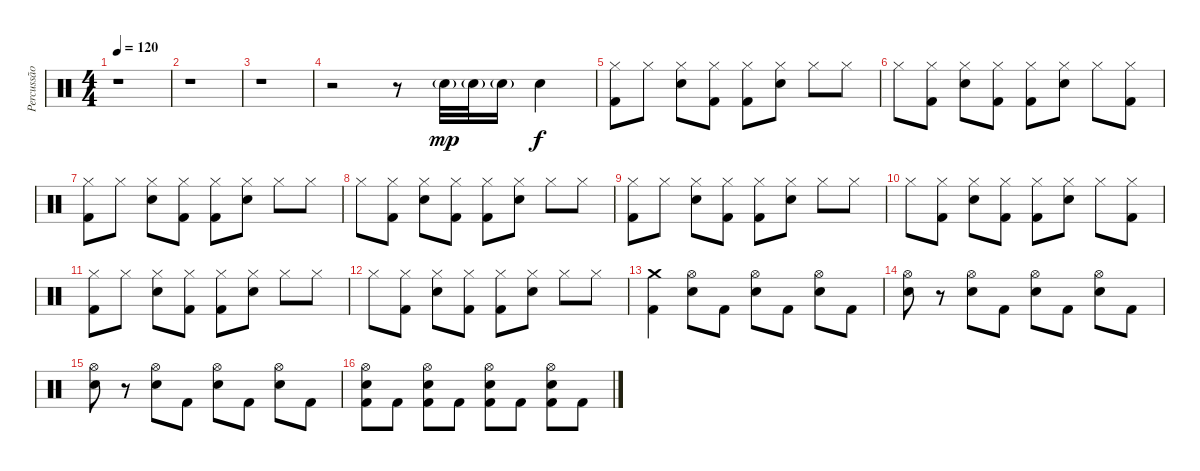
\track ("Percussão" "Percussão") {instrument percussion}
\staff {score}
\articulation defaults
\ts (4 4)
\tempo 120
\clef neutral
\ks c
r.1{dy mp} |
r.1 |
r.1 |
r.2 r.8 "Electric Snare (hit)"{g}.32 "Electric Snare (hit)"{g}.32 "Electric Snare (hit)"{g}.16 "Electric Snare (hit)".4{dy f} |
("Kick (hit) 2" "Hi-Hat (closed)").8 "Hi-Hat (closed)".8 ("Electric Snare (hit)" "Hi-Hat (closed)").8 ("Kick (hit) 2" "Hi-Hat (closed)").8 ("Kick (hit) 2" "Hi-Hat (closed)").8 ("Electric Snare (hit)" "Hi-Hat (closed)").8 "Hi-Hat (closed)".8 "Hi-Hat (closed)".8 |
"Hi-Hat (closed)".8 ("Kick (hit) 2" "Hi-Hat (closed)").8 ("Electric Snare (hit)" "Hi-Hat (closed)").8 ("Kick (hit) 2" "Hi-Hat (closed)").8 ("Kick (hit) 2" "Hi-Hat (closed)").8 ("Electric Snare (hit)" "Hi-Hat (closed)").8 "Hi-Hat (closed)".8 ("Kick (hit) 2" "Hi-Hat (closed)").8 |
("Kick (hit) 2" "Hi-Hat (closed)").8 "Hi-Hat (closed)".8 ("Electric Snare (hit)" "Hi-Hat (closed)").8 ("Kick (hit) 2" "Hi-Hat (closed)").8 ("Kick (hit) 2" "Hi-Hat (closed)").8 ("Electric Snare (hit)" "Hi-Hat (closed)").8 "Hi-Hat (closed)".8 "Hi-Hat (closed)".8 |
"Hi-Hat (closed)".8 ("Kick (hit) 2" "Hi-Hat (closed)").8 ("Electric Snare (hit)" "Hi-Hat (closed)").8 ("Kick (hit) 2" "Hi-Hat (closed)").8 ("Kick (hit) 2" "Hi-Hat (closed)").8 ("Electric Snare (hit)" "Hi-Hat (closed)").8 "Hi-Hat (closed)".8 "Hi-Hat (closed)".8 |
("Kick (hit) 2" "Hi-Hat (closed)").8 "Hi-Hat (closed)".8 ("Electric Snare (hit)" "Hi-Hat (closed)").8 ("Kick (hit) 2" "Hi-Hat (closed)").8 ("Kick (hit) 2" "Hi-Hat (closed)").8 ("Electric Snare (hit)" "Hi-Hat (closed)").8 "Hi-Hat (closed)".8 "Hi-Hat (closed)".8 |
"Hi-Hat (closed)".8 ("Kick (hit) 2" "Hi-Hat (closed)").8 ("Electric Snare (hit)" "Hi-Hat (closed)").8 ("Kick (hit) 2" "Hi-Hat (closed)").8 ("Kick (hit) 2" "Hi-Hat (closed)").8 ("Electric Snare (hit)" "Hi-Hat (closed)").8 "Hi-Hat (closed)".8 ("Kick (hit) 2" "Hi-Hat (closed)").8 |
("Kick (hit) 2" "Hi-Hat (closed)").8 "Hi-Hat (closed)".8 ("Electric Snare (hit)" "Hi-Hat (closed)").8 ("Kick (hit) 2" "Hi-Hat (closed)").8 ("Kick (hit) 2" "Hi-Hat (closed)").8 ("Electric Snare (hit)" "Hi-Hat (closed)").8 "Hi-Hat (closed)".8 "Hi-Hat (closed)".8 |
"Hi-Hat (closed)".8 ("Kick (hit) 2" "Hi-Hat (closed)").8 ("Electric Snare (hit)" "Hi-Hat (closed)").8 ("Kick (hit) 2" "Hi-Hat (closed)").8 ("Kick (hit) 2" "Hi-Hat (closed)").8 ("Electric Snare (hit)" "Hi-Hat (closed)").8 "Hi-Hat (closed)".8 "Hi-Hat (closed)".8 |
("Kick (hit) 2" "Crash medium (hit)").4 ("Electric Snare (hit)" "Hi-Hat (open)").8 "Kick (hit) 2".8 ("Electric Snare (hit)" "Hi-Hat (open)").8 "Kick (hit) 2".8 ("Electric Snare (hit)" "Hi-Hat (open)").8 "Kick (hit) 2".8 |
("Electric Snare (hit)" "Hi-Hat (open)").8 r.8 ("Electric Snare (hit)" "Hi-Hat (open)").8 "Kick (hit) 2".8 ("Electric Snare (hit)" "Hi-Hat (open)").8 "Kick (hit) 2".8 ("Electric Snare (hit)" "Hi-Hat (open)").8 "Kick (hit) 2".8 |
("Electric Snare (hit)" "Hi-Hat (open)").8 r.8 ("Electric Snare (hit)" "Hi-Hat (open)").8 "Kick (hit) 2".8 ("Electric Snare (hit)" "Hi-Hat (open)").8 "Kick (hit) 2".8 ("Electric Snare (hit)" "Hi-Hat (open)").8 "Kick (hit) 2".8 |
("Electric Snare (hit)" "Kick (hit) 2" "Hi-Hat (open)").8 "Kick (hit) 2".8 ("Electric Snare (hit)" "Kick (hit) 2" "Hi-Hat (open)").8 "Kick (hit) 2".8 ("Electric Snare (hit)" "Kick (hit) 2" "Hi-Hat (open)").8 "Kick (hit) 2".8 ("Electric Snare (hit)" "Kick (hit) 2" "Hi-Hat (open)").8 "Kick (hit) 2".8
